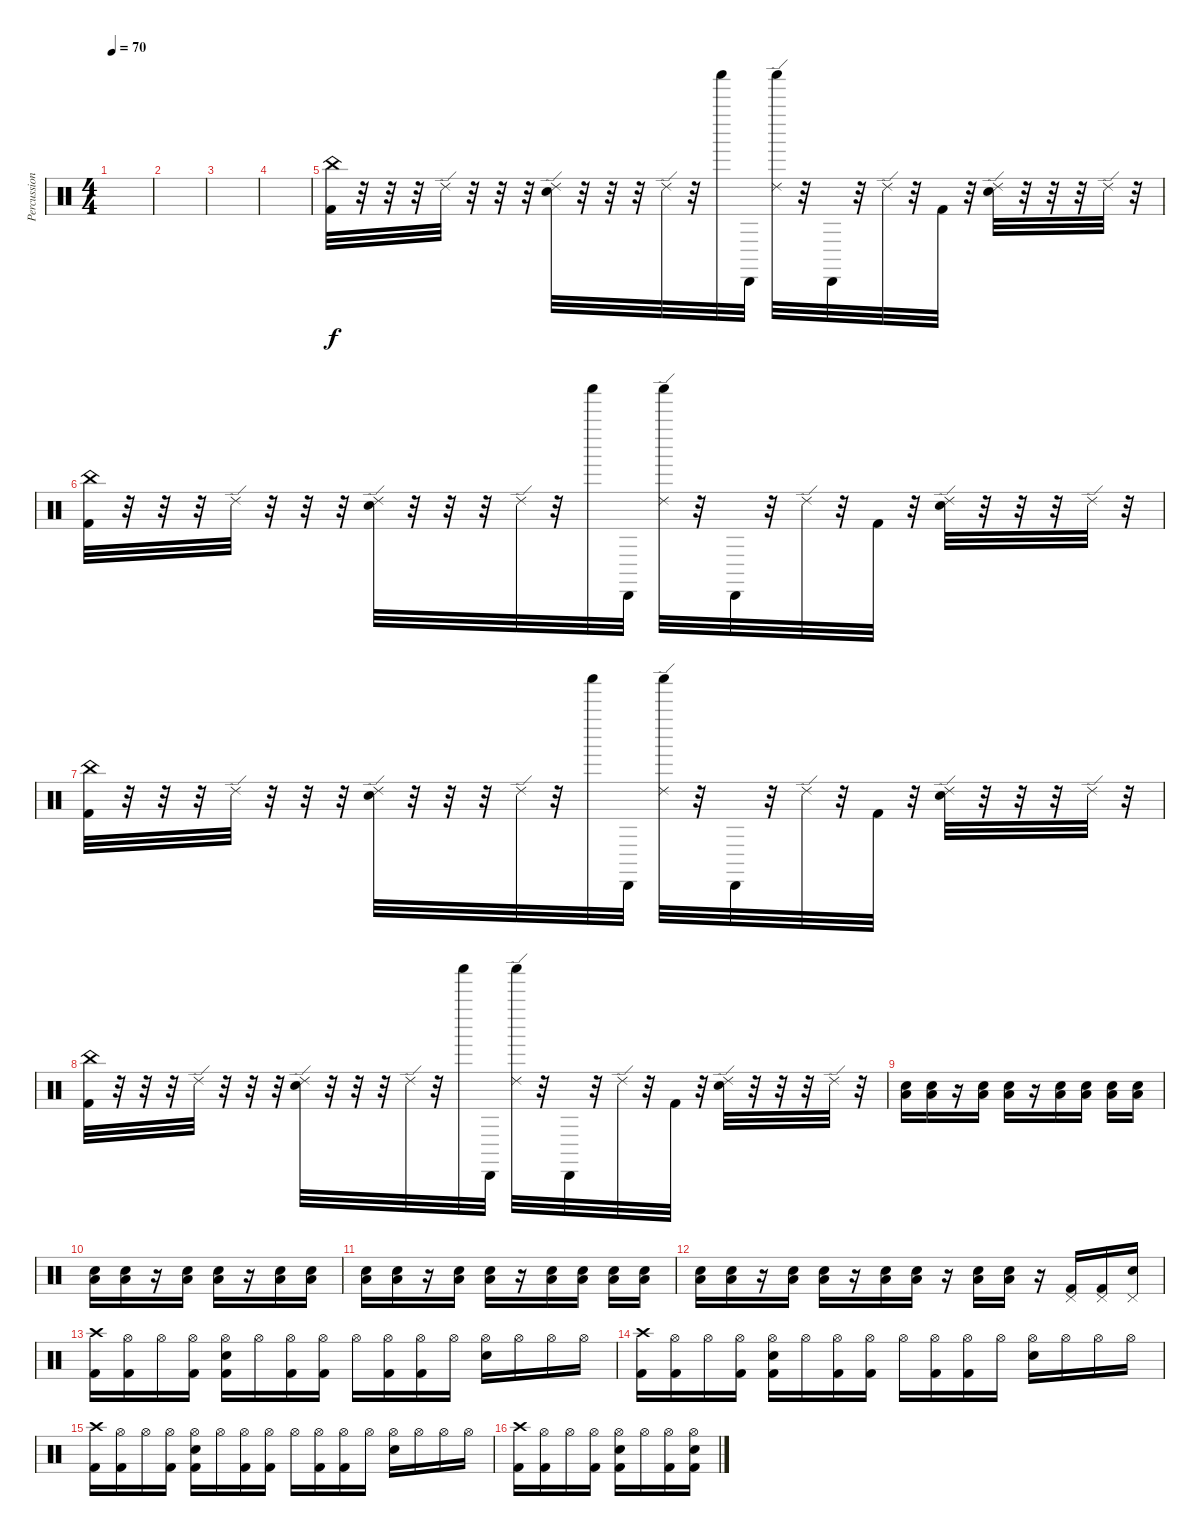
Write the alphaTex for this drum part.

\track ("Percussion" "Percussion") {instrument percussion}
\staff {score}
\articulation defaults
\ts (4 4)
\tempo 70
\clef neutral
\ks c
|
|
|
|
("China (hit)" "Kick (hit) 2").32 r.32 r.32 r.32 "Ride (edge) 2".32 r.32 r.32 r.32 ("Ride (edge) 2" "Snare (hit) 2").32 r.32 r.32 r.32 "Ride (edge) 2".32 r.32 "Shaker (hit)".32 "Cabasa (hit)".32 ("Ride (edge) 2" "Shaker (hit)").32 r.32 "Cabasa (hit)".32 r.32 "Ride (edge) 2".32 r.32 "Kick (hit) 2".32 r.32 ("Ride (edge) 2" "Snare (hit) 2").32 r.32 r.32 r.32 "Ride (edge) 2".32 r.32 |
("China (hit)" "Kick (hit) 2").32 r.32 r.32 r.32 "Ride (edge) 2".32 r.32 r.32 r.32 ("Ride (edge) 2" "Snare (hit) 2").32 r.32 r.32 r.32 "Ride (edge) 2".32 r.32 "Shaker (hit)".32 "Cabasa (hit)".32 ("Ride (edge) 2" "Shaker (hit)").32 r.32 "Cabasa (hit)".32 r.32 "Ride (edge) 2".32 r.32 "Kick (hit) 2".32 r.32 ("Ride (edge) 2" "Snare (hit) 2").32 r.32 r.32 r.32 "Ride (edge) 2".32 r.32 |
("China (hit)" "Kick (hit) 2").32 r.32 r.32 r.32 "Ride (edge) 2".32 r.32 r.32 r.32 ("Ride (edge) 2" "Snare (hit) 2").32 r.32 r.32 r.32 "Ride (edge) 2".32 r.32 "Shaker (hit)".32 "Cabasa (hit)".32 ("Ride (edge) 2" "Shaker (hit)").32 r.32 "Cabasa (hit)".32 r.32 "Ride (edge) 2".32 r.32 "Kick (hit) 2".32 r.32 ("Ride (edge) 2" "Snare (hit) 2").32 r.32 r.32 r.32 "Ride (edge) 2".32 r.32 |
("China (hit)" "Kick (hit) 2").32 r.32 r.32 r.32 "Ride (edge) 2".32 r.32 r.32 r.32 ("Ride (edge) 2" "Snare (hit) 2").32 r.32 r.32 r.32 "Ride (edge) 2".32 r.32 "Shaker (hit)".32 "Cabasa (hit)".32 ("Ride (edge) 2" "Shaker (hit)").32 r.32 "Cabasa (hit)".32 r.32 "Ride (edge) 2".32 r.32 "Kick (hit) 2".32 r.32 ("Ride (edge) 2" "Snare (hit) 2").32 r.32 r.32 r.32 "Ride (edge) 2".32 r.32 |
("Low Floor Tom (hit)" "Snare (hit) 2").16 ("Low Floor Tom (hit)" "Snare (hit) 2").16 r.16 ("Low Floor Tom (hit)" "Snare (hit) 2").16 ("Low Floor Tom (hit)" "Snare (hit) 2").16 r.16 ("Low Floor Tom (hit)" "Snare (hit) 2").16 ("Low Floor Tom (hit)" "Snare (hit) 2").16 ("Low Floor Tom (hit)" "Snare (hit) 2").16 ("Low Floor Tom (hit)" "Snare (hit) 2").16 |
("Low Floor Tom (hit)" "Snare (hit) 2").16 ("Low Floor Tom (hit)" "Snare (hit) 2").16 r.16 ("Low Floor Tom (hit)" "Snare (hit) 2").16 ("Low Floor Tom (hit)" "Snare (hit) 2").16 r.16 ("Low Floor Tom (hit)" "Snare (hit) 2").16 ("Low Floor Tom (hit)" "Snare (hit) 2").16 |
("Low Floor Tom (hit)" "Snare (hit) 2").16 ("Low Floor Tom (hit)" "Snare (hit) 2").16 r.16 ("Low Floor Tom (hit)" "Snare (hit) 2").16 ("Low Floor Tom (hit)" "Snare (hit) 2").16 r.16 ("Low Floor Tom (hit)" "Snare (hit) 2").16 ("Low Floor Tom (hit)" "Snare (hit) 2").16 ("Low Floor Tom (hit)" "Snare (hit) 2").16 ("Low Floor Tom (hit)" "Snare (hit) 2").16 |
("Low Floor Tom (hit)" "Snare (hit) 2").16 ("Low Floor Tom (hit)" "Snare (hit) 2").16 r.16 ("Low Floor Tom (hit)" "Snare (hit) 2").16 ("Low Floor Tom (hit)" "Snare (hit) 2").16 r.16 ("Low Floor Tom (hit)" "Snare (hit) 2").16 ("Low Floor Tom (hit)" "Snare (hit) 2").16 r.16 ("Low Floor Tom (hit)" "Snare (hit) 2").16 ("Low Floor Tom (hit)" "Snare (hit) 2").16 r.16 ("Pedal Hi-Hat (hit)" "Kick (hit) 2").16 ("Pedal Hi-Hat (hit)" "Kick (hit) 2").16 ("Pedal Hi-Hat (hit)" "Snare (hit) 2").16 |
("Crash high (hit)" "Kick (hit) 2").16 ("Hi-Hat (open)" "Kick (hit) 2").16 "Hi-Hat (open)".16 ("Hi-Hat (open)" "Kick (hit) 2").16 ("Hi-Hat (open)" "Kick (hit) 2" "Snare (hit) 2").16 "Hi-Hat (open)".16 ("Hi-Hat (open)" "Kick (hit) 2").16 ("Hi-Hat (open)" "Kick (hit) 2").16 "Hi-Hat (open)".16 ("Hi-Hat (open)" "Kick (hit) 2").16 ("Hi-Hat (open)" "Kick (hit) 2").16 "Hi-Hat (open)".16 ("Hi-Hat (open)" "Snare (hit) 2").16 "Hi-Hat (open)".16 "Hi-Hat (open)".16 "Hi-Hat (open)".16 |
("Crash high (hit)" "Kick (hit) 2").16 ("Hi-Hat (open)" "Kick (hit) 2").16 "Hi-Hat (open)".16 ("Hi-Hat (open)" "Kick (hit) 2").16 ("Hi-Hat (open)" "Kick (hit) 2" "Snare (hit) 2").16 "Hi-Hat (open)".16 ("Hi-Hat (open)" "Kick (hit) 2").16 ("Hi-Hat (open)" "Kick (hit) 2").16 "Hi-Hat (open)".16 ("Hi-Hat (open)" "Kick (hit) 2").16 ("Hi-Hat (open)" "Kick (hit) 2").16 "Hi-Hat (open)".16 ("Hi-Hat (open)" "Snare (hit) 2").16 "Hi-Hat (open)".16 "Hi-Hat (open)".16 "Hi-Hat (open)".16 |
("Crash high (hit)" "Kick (hit) 2").16 ("Hi-Hat (open)" "Kick (hit) 2").16 "Hi-Hat (open)".16 ("Hi-Hat (open)" "Kick (hit) 2").16 ("Hi-Hat (open)" "Kick (hit) 2" "Snare (hit) 2").16 "Hi-Hat (open)".16 ("Hi-Hat (open)" "Kick (hit) 2").16 ("Hi-Hat (open)" "Kick (hit) 2").16 "Hi-Hat (open)".16 ("Hi-Hat (open)" "Kick (hit) 2").16 ("Hi-Hat (open)" "Kick (hit) 2").16 "Hi-Hat (open)".16 ("Hi-Hat (open)" "Snare (hit) 2").16 "Hi-Hat (open)".16 "Hi-Hat (open)".16 "Hi-Hat (open)".16 |
("Crash high (hit)" "Kick (hit) 2").16 ("Hi-Hat (open)" "Kick (hit) 2").16 "Hi-Hat (open)".16 ("Hi-Hat (open)" "Kick (hit) 2").16 ("Hi-Hat (open)" "Kick (hit) 2" "Snare (hit) 2").16 "Hi-Hat (open)".16 ("Hi-Hat (open)" "Kick (hit) 2").16 ("Hi-Hat (open)" "Kick (hit) 2" "Snare (hit) 2").16
